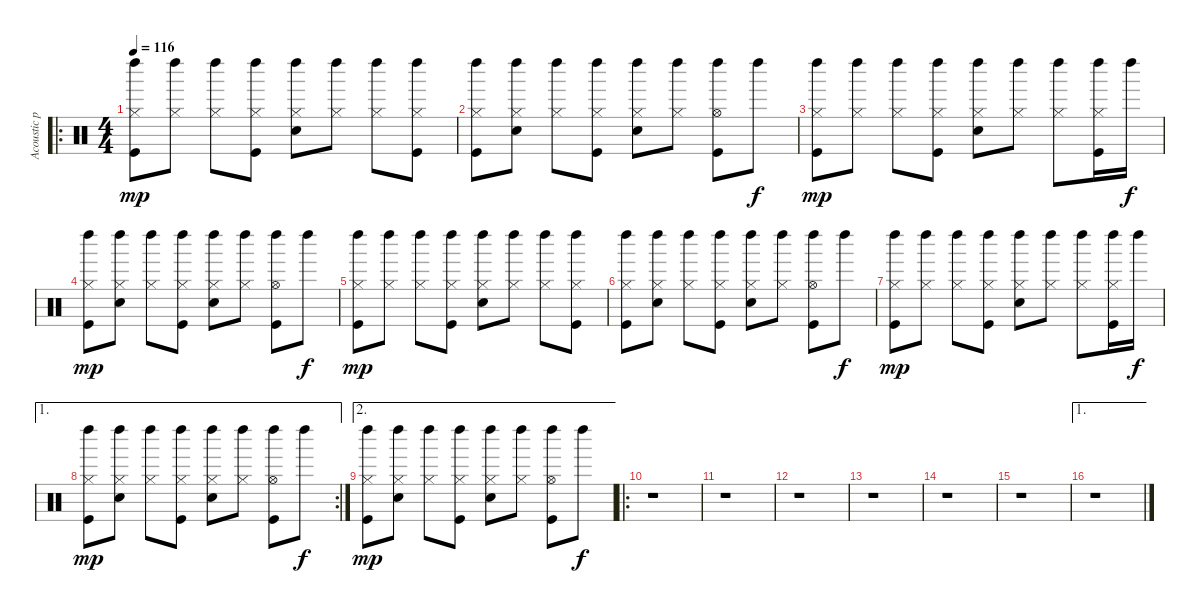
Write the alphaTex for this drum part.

\track ("Acoustic part Drums" "Acoustic p") {instrument percussion}
\staff {score}
\articulation defaults
\ro
\ts (4 4)
\tempo 116
\clef neutral
\ks c
("Kick (hit)" "Hi-Hat (closed)" "Left Maraca (hit)").8{dy mp} ("Hi-Hat (closed)" "Left Maraca (hit)").8 ("Hi-Hat (closed)" "Left Maraca (hit)").8 ("Kick (hit)" "Hi-Hat (closed)" "Left Maraca (hit)").8 ("Hi-Hat (closed)" "Electric Snare (hit)" "Left Maraca (hit)").8 ("Hi-Hat (closed)" "Left Maraca (hit)").8 ("Hi-Hat (closed)" "Left Maraca (hit)").8 ("Kick (hit)" "Hi-Hat (closed)" "Left Maraca (hit)").8 |
("Kick (hit)" "Hi-Hat (closed)" "Left Maraca (hit)").8 ("Hi-Hat (closed)" "Electric Snare (hit)" "Left Maraca (hit)").8 ("Hi-Hat (closed)" "Left Maraca (hit)").8 ("Kick (hit)" "Hi-Hat (closed)" "Left Maraca (hit)").8 ("Hi-Hat (closed)" "Electric Snare (hit)" "Left Maraca (hit)").8 ("Hi-Hat (closed)" "Left Maraca (hit)").8 ("Kick (hit)" "Hi-Hat (open)" "Left Maraca (hit)").8 "Left Maraca (hit)".8{dy f} |
("Kick (hit)" "Hi-Hat (closed)" "Left Maraca (hit)").8{dy mp} ("Hi-Hat (closed)" "Left Maraca (hit)").8 ("Hi-Hat (closed)" "Left Maraca (hit)").8 ("Kick (hit)" "Hi-Hat (closed)" "Left Maraca (hit)").8 ("Hi-Hat (closed)" "Electric Snare (hit)" "Left Maraca (hit)").8 ("Hi-Hat (closed)" "Left Maraca (hit)").8 ("Hi-Hat (closed)" "Left Maraca (hit)").8 ("Kick (hit)" "Hi-Hat (closed)" "Left Maraca (hit)").16 "Left Maraca (hit)".16{dy f} |
("Kick (hit)" "Hi-Hat (closed)" "Left Maraca (hit)").8{dy mp} ("Hi-Hat (closed)" "Electric Snare (hit)" "Left Maraca (hit)").8 ("Hi-Hat (closed)" "Left Maraca (hit)").8 ("Kick (hit)" "Hi-Hat (closed)" "Left Maraca (hit)").8 ("Hi-Hat (closed)" "Electric Snare (hit)" "Left Maraca (hit)").8 ("Hi-Hat (closed)" "Left Maraca (hit)").8 ("Kick (hit)" "Hi-Hat (open)" "Left Maraca (hit)").8 "Left Maraca (hit)".8{dy f} |
("Kick (hit)" "Hi-Hat (closed)" "Left Maraca (hit)").8{dy mp} ("Hi-Hat (closed)" "Left Maraca (hit)").8 ("Hi-Hat (closed)" "Left Maraca (hit)").8 ("Kick (hit)" "Hi-Hat (closed)" "Left Maraca (hit)").8 ("Hi-Hat (closed)" "Electric Snare (hit)" "Left Maraca (hit)").8 ("Hi-Hat (closed)" "Left Maraca (hit)").8 ("Hi-Hat (closed)" "Left Maraca (hit)").8 ("Kick (hit)" "Hi-Hat (closed)" "Left Maraca (hit)").8 |
("Kick (hit)" "Hi-Hat (closed)" "Left Maraca (hit)").8 ("Hi-Hat (closed)" "Electric Snare (hit)" "Left Maraca (hit)").8 ("Hi-Hat (closed)" "Left Maraca (hit)").8 ("Kick (hit)" "Hi-Hat (closed)" "Left Maraca (hit)").8 ("Hi-Hat (closed)" "Electric Snare (hit)" "Left Maraca (hit)").8 ("Hi-Hat (closed)" "Left Maraca (hit)").8 ("Kick (hit)" "Hi-Hat (open)" "Left Maraca (hit)").8 "Left Maraca (hit)".8{dy f} |
("Kick (hit)" "Hi-Hat (closed)" "Left Maraca (hit)").8{dy mp} ("Hi-Hat (closed)" "Left Maraca (hit)").8 ("Hi-Hat (closed)" "Left Maraca (hit)").8 ("Kick (hit)" "Hi-Hat (closed)" "Left Maraca (hit)").8 ("Hi-Hat (closed)" "Electric Snare (hit)" "Left Maraca (hit)").8 ("Hi-Hat (closed)" "Left Maraca (hit)").8 ("Hi-Hat (closed)" "Left Maraca (hit)").8 ("Kick (hit)" "Hi-Hat (closed)" "Left Maraca (hit)").16 "Left Maraca (hit)".16{dy f} |
\ae 1
\rc 2
("Kick (hit)" "Hi-Hat (closed)" "Left Maraca (hit)").8{dy mp} ("Hi-Hat (closed)" "Electric Snare (hit)" "Left Maraca (hit)").8 ("Hi-Hat (closed)" "Left Maraca (hit)").8 ("Kick (hit)" "Hi-Hat (closed)" "Left Maraca (hit)").8 ("Hi-Hat (closed)" "Electric Snare (hit)" "Left Maraca (hit)").8 ("Hi-Hat (closed)" "Left Maraca (hit)").8 ("Kick (hit)" "Hi-Hat (open)" "Left Maraca (hit)").8 "Left Maraca (hit)".8{dy f} |
\ae 2
("Kick (hit)" "Hi-Hat (closed)" "Left Maraca (hit)").8{dy mp} ("Hi-Hat (closed)" "Electric Snare (hit)" "Left Maraca (hit)").8 ("Hi-Hat (closed)" "Left Maraca (hit)").8 ("Kick (hit)" "Hi-Hat (closed)" "Left Maraca (hit)").8 ("Hi-Hat (closed)" "Electric Snare (hit)" "Left Maraca (hit)").8 ("Hi-Hat (closed)" "Left Maraca (hit)").8 ("Kick (hit)" "Hi-Hat (open)" "Left Maraca (hit)").8 "Left Maraca (hit)".8{dy f} |
\ro
r.1 |
r.1 |
r.1 |
r.1 |
r.1 |
r.1 |
\ae 1
r.1
